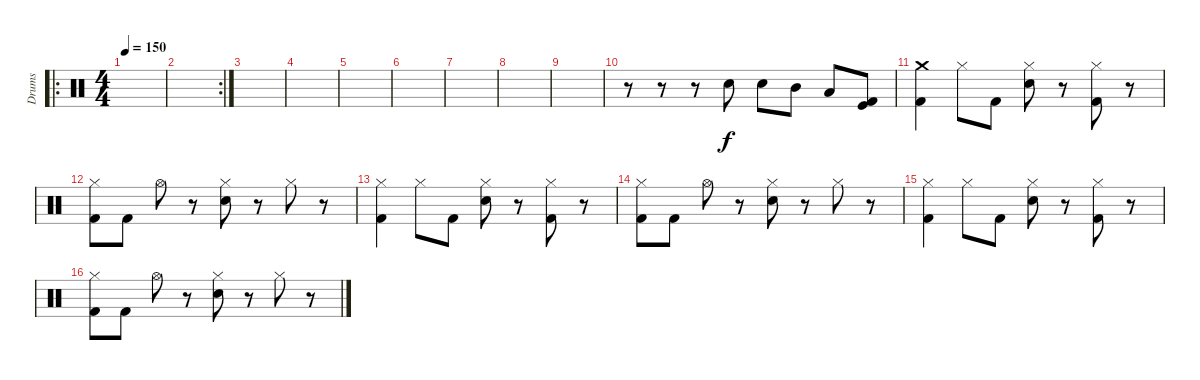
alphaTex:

\track ("Drums" "Drums") {instrument percussion}
\staff {score}
\articulation defaults
\ro
\ts (4 4)
\tempo 150
\clef neutral
\ks c
|
\rc 2
|
|
|
|
|
|
|
|
r.8 r.8 r.8 "Snare (hit) 2".8 "Snare (hit) 2".8 "Mid Tom (hit)".8 "Low Tom (hit)".8 ("Kick (hit)" "Kick (hit) 2").8 |
("Crash medium (hit)" "Kick (hit) 2").4 "Hi-Hat (closed)".8 "Kick (hit) 2".8 ("Hi-Hat (closed)" "Snare (hit) 2").8 r.8 ("Hi-Hat (closed)" "Kick (hit) 2").8 r.8 |
("Hi-Hat (closed)" "Kick (hit) 2").8 "Kick (hit) 2".8 "Hi-Hat (open)".8 r.8 ("Hi-Hat (closed)" "Snare (hit) 2").8 r.8 "Hi-Hat (closed)".8 r.8 |
("Hi-Hat (closed)" "Kick (hit) 2").4 "Hi-Hat (closed)".8 "Kick (hit) 2".8 ("Hi-Hat (closed)" "Snare (hit) 2").8 r.8 ("Hi-Hat (closed)" "Kick (hit) 2").8 r.8 |
("Hi-Hat (closed)" "Kick (hit) 2").8 "Kick (hit) 2".8 "Hi-Hat (open)".8 r.8 ("Hi-Hat (closed)" "Snare (hit) 2").8 r.8 "Hi-Hat (closed)".8 r.8 |
("Hi-Hat (closed)" "Kick (hit) 2").4 "Hi-Hat (closed)".8 "Kick (hit) 2".8 ("Hi-Hat (closed)" "Snare (hit) 2").8 r.8 ("Hi-Hat (closed)" "Kick (hit) 2").8 r.8 |
("Hi-Hat (closed)" "Kick (hit) 2").8 "Kick (hit) 2".8 "Hi-Hat (open)".8 r.8 ("Hi-Hat (closed)" "Snare (hit) 2").8 r.8 "Hi-Hat (closed)".8 r.8
